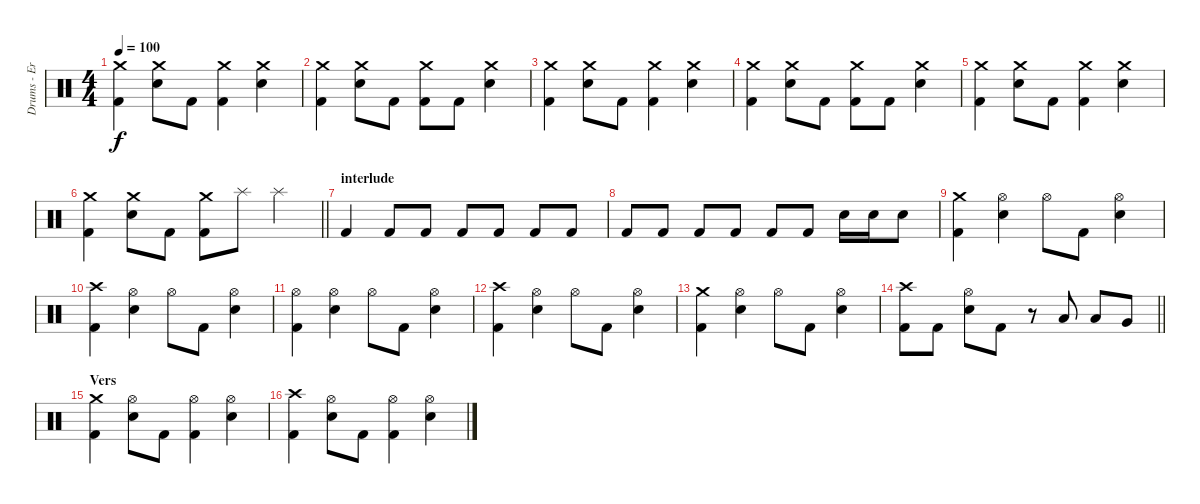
\track ("Drums - Eric Young" "Drums - Er") {instrument percussion}
\staff {score}
\articulation defaults
\ts (4 4)
\tempo 100
\clef neutral
\ks c
("Crash medium (hit)" "Kick (hit) 2").4{dy f} ("Crash medium (hit)" "Electric Snare (hit)").8 "Kick (hit) 2".8 ("Crash medium (hit)" "Kick (hit) 2").4 ("Crash medium (hit)" "Electric Snare (hit)").4 |
("Crash medium (hit)" "Kick (hit) 2").4 ("Crash medium (hit)" "Electric Snare (hit)").8 "Kick (hit) 2".8 ("Crash medium (hit)" "Kick (hit) 2").8 "Kick (hit) 2".8 ("Crash medium (hit)" "Electric Snare (hit)").4 |
("Crash medium (hit)" "Kick (hit) 2").4 ("Crash medium (hit)" "Electric Snare (hit)").8 "Kick (hit) 2".8 ("Crash medium (hit)" "Kick (hit) 2").4 ("Crash medium (hit)" "Electric Snare (hit)").4 |
("Crash medium (hit)" "Kick (hit) 2").4 ("Crash medium (hit)" "Electric Snare (hit)").8 "Kick (hit) 2".8 ("Crash medium (hit)" "Kick (hit) 2").8 "Kick (hit) 2".8 ("Crash medium (hit)" "Electric Snare (hit)").4 |
("Crash medium (hit)" "Kick (hit) 2").4 ("Crash medium (hit)" "Electric Snare (hit)").8 "Kick (hit) 2".8 ("Crash medium (hit)" "Kick (hit) 2").4 ("Crash medium (hit)" "Electric Snare (hit)").4 |
\barLineRight lightlight
("Crash medium (hit)" "Kick (hit) 2").4 ("Crash medium (hit)" "Electric Snare (hit)").8 "Kick (hit) 2".8 ("Crash medium (hit)" "Kick (hit) 2").8 "Splash (hit)".8 "Splash (hit)".4 |
\section ("" "interlude")
"Kick (hit) 2".4 "Kick (hit) 2".8 "Kick (hit) 2".8 "Kick (hit) 2".8 "Kick (hit) 2".8 "Kick (hit) 2".8 "Kick (hit) 2".8 |
"Kick (hit) 2".8 "Kick (hit) 2".8 "Kick (hit) 2".8 "Kick (hit) 2".8 "Kick (hit) 2".8 "Kick (hit) 2".8 "Electric Snare (hit)".16 "Electric Snare (hit)".16 "Electric Snare (hit)".8 |
("Crash medium (hit)" "Kick (hit) 2").4 ("Hi-Hat (open)" "Electric Snare (hit)").4 "Hi-Hat (open)".8 "Kick (hit) 2".8 ("Hi-Hat (open)" "Electric Snare (hit)").4 |
("Crash high (hit)" "Kick (hit) 2").4 ("Hi-Hat (open)" "Electric Snare (hit)").4 "Hi-Hat (open)".8 "Kick (hit) 2".8 ("Hi-Hat (open)" "Electric Snare (hit)").4 |
("Hi-Hat (open)" "Kick (hit) 2").4 ("Hi-Hat (open)" "Electric Snare (hit)").4 "Hi-Hat (open)".8 "Kick (hit) 2".8 ("Hi-Hat (open)" "Electric Snare (hit)").4 |
("Crash high (hit)" "Kick (hit) 2").4 ("Hi-Hat (open)" "Electric Snare (hit)").4 "Hi-Hat (open)".8 "Kick (hit) 2".8 ("Hi-Hat (open)" "Electric Snare (hit)").4 |
("Crash medium (hit)" "Kick (hit) 2").4 ("Hi-Hat (open)" "Electric Snare (hit)").4 "Hi-Hat (open)".8 "Kick (hit) 2".8 ("Hi-Hat (open)" "Electric Snare (hit)").4 |
\barLineRight lightlight
("Crash high (hit)" "Kick (hit) 2").8 "Kick (hit) 2".8 ("Hi-Hat (open)" "Electric Snare (hit)").8 "Kick (hit) 2".8 r.8 "Low Tom (hit)".8 "Low Tom (hit)".8 "Very Low Tom (hit)".8 |
\section ("" "Vers")
("Crash medium (hit)" "Kick (hit) 2").4 ("Hi-Hat (open)" "Electric Snare (hit)").8 "Kick (hit) 2".8 ("Hi-Hat (open)" "Kick (hit) 2").4 ("Hi-Hat (open)" "Electric Snare (hit)").4 |
("Crash high (hit)" "Kick (hit) 2").4 ("Hi-Hat (open)" "Electric Snare (hit)").8 "Kick (hit) 2".8 ("Hi-Hat (open)" "Kick (hit) 2").4 ("Hi-Hat (open)" "Electric Snare (hit)").4
